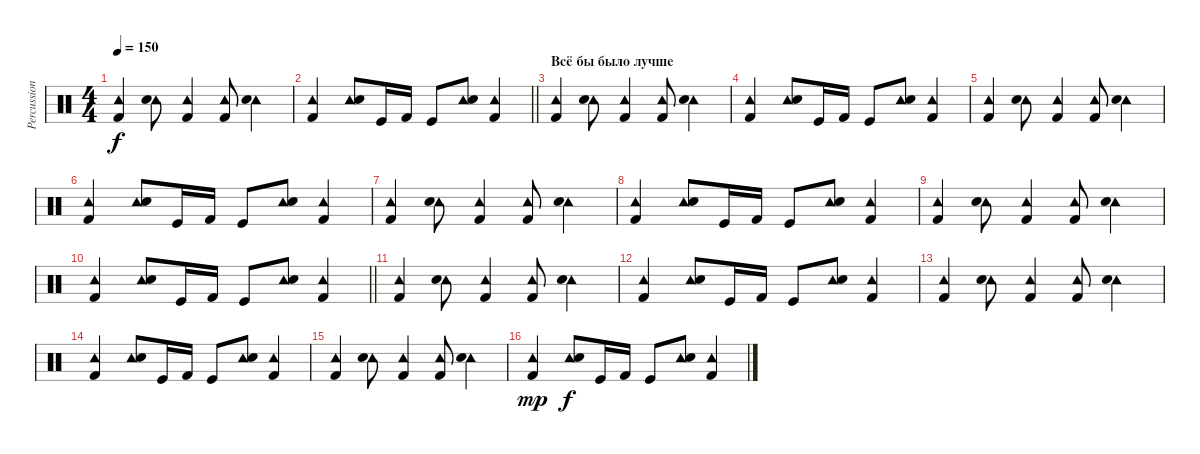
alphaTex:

\track ("Percussion" "Percussion") {instrument percussion bank 3}
\staff {score}
\articulation defaults
\ts (4 4)
\tempo 150
\clef neutral
\ks c
("Tambourine (hit)" "Kick (hit) 2").4{dy f} ("Tambourine (hit)" "Snare (hit) 2").8 ("Tambourine (hit)" "Kick (hit) 2").4 ("Tambourine (hit)" "Kick (hit) 2").8 ("Tambourine (hit)" "Snare (hit) 2").4 |
\barLineRight lightlight
("Tambourine (hit)" "Kick (hit) 2").4 ("Tambourine (hit)" "Snare (hit) 2").8 "Kick (hit)".16 "Kick (hit) 2".16 "Kick (hit)".8 ("Tambourine (hit)" "Snare (hit) 2").8 ("Tambourine (hit)" "Kick (hit) 2").4 |
\section ("" "Всё бы было лучше")
("Tambourine (hit)" "Kick (hit) 2").4 ("Tambourine (hit)" "Snare (hit) 2").8 ("Tambourine (hit)" "Kick (hit) 2").4 ("Tambourine (hit)" "Kick (hit) 2").8 ("Tambourine (hit)" "Snare (hit) 2").4 |
("Tambourine (hit)" "Kick (hit) 2").4 ("Tambourine (hit)" "Snare (hit) 2").8 "Kick (hit)".16 "Kick (hit) 2".16 "Kick (hit)".8 ("Tambourine (hit)" "Snare (hit) 2").8 ("Tambourine (hit)" "Kick (hit) 2").4 |
("Tambourine (hit)" "Kick (hit) 2").4 ("Tambourine (hit)" "Snare (hit) 2").8 ("Tambourine (hit)" "Kick (hit) 2").4 ("Tambourine (hit)" "Kick (hit) 2").8 ("Tambourine (hit)" "Snare (hit) 2").4 |
("Tambourine (hit)" "Kick (hit) 2").4 ("Tambourine (hit)" "Snare (hit) 2").8 "Kick (hit)".16 "Kick (hit) 2".16 "Kick (hit)".8 ("Tambourine (hit)" "Snare (hit) 2").8 ("Tambourine (hit)" "Kick (hit) 2").4 |
("Tambourine (hit)" "Kick (hit) 2").4 ("Tambourine (hit)" "Snare (hit) 2").8 ("Tambourine (hit)" "Kick (hit) 2").4 ("Tambourine (hit)" "Kick (hit) 2").8 ("Tambourine (hit)" "Snare (hit) 2").4 |
("Tambourine (hit)" "Kick (hit) 2").4 ("Tambourine (hit)" "Snare (hit) 2").8 "Kick (hit)".16 "Kick (hit) 2".16 "Kick (hit)".8 ("Tambourine (hit)" "Snare (hit) 2").8 ("Tambourine (hit)" "Kick (hit) 2").4 |
("Tambourine (hit)" "Kick (hit) 2").4 ("Tambourine (hit)" "Snare (hit) 2").8 ("Tambourine (hit)" "Kick (hit) 2").4 ("Tambourine (hit)" "Kick (hit) 2").8 ("Tambourine (hit)" "Snare (hit) 2").4 |
\barLineRight lightlight
("Tambourine (hit)" "Kick (hit) 2").4 ("Tambourine (hit)" "Snare (hit) 2").8 "Kick (hit)".16 "Kick (hit) 2".16 "Kick (hit)".8 ("Tambourine (hit)" "Snare (hit) 2").8 ("Tambourine (hit)" "Kick (hit) 2").4 |
("Tambourine (hit)" "Kick (hit) 2").4 ("Tambourine (hit)" "Snare (hit) 2").8 ("Tambourine (hit)" "Kick (hit) 2").4 ("Tambourine (hit)" "Kick (hit) 2").8 ("Tambourine (hit)" "Snare (hit) 2").4 |
("Tambourine (hit)" "Kick (hit) 2").4 ("Tambourine (hit)" "Snare (hit) 2").8 "Kick (hit)".16 "Kick (hit) 2".16 "Kick (hit)".8 ("Tambourine (hit)" "Snare (hit) 2").8 ("Tambourine (hit)" "Kick (hit) 2").4 |
("Tambourine (hit)" "Kick (hit) 2").4 ("Tambourine (hit)" "Snare (hit) 2").8 ("Tambourine (hit)" "Kick (hit) 2").4 ("Tambourine (hit)" "Kick (hit) 2").8 ("Tambourine (hit)" "Snare (hit) 2").4 |
("Tambourine (hit)" "Kick (hit) 2").4 ("Tambourine (hit)" "Snare (hit) 2").8 "Kick (hit)".16 "Kick (hit) 2".16 "Kick (hit)".8 ("Tambourine (hit)" "Snare (hit) 2").8 ("Tambourine (hit)" "Kick (hit) 2").4 |
("Tambourine (hit)" "Kick (hit) 2").4 ("Tambourine (hit)" "Snare (hit) 2").8 ("Tambourine (hit)" "Kick (hit) 2").4 ("Tambourine (hit)" "Kick (hit) 2").8 ("Tambourine (hit)" "Snare (hit) 2").4 |
("Tambourine (hit)" "Kick (hit) 2").4{dy mp} ("Tambourine (hit)" "Snare (hit) 2").8{dy f} "Kick (hit)".16 "Kick (hit) 2".16 "Kick (hit)".8 ("Tambourine (hit)" "Snare (hit) 2").8 ("Tambourine (hit)" "Kick (hit) 2").4
